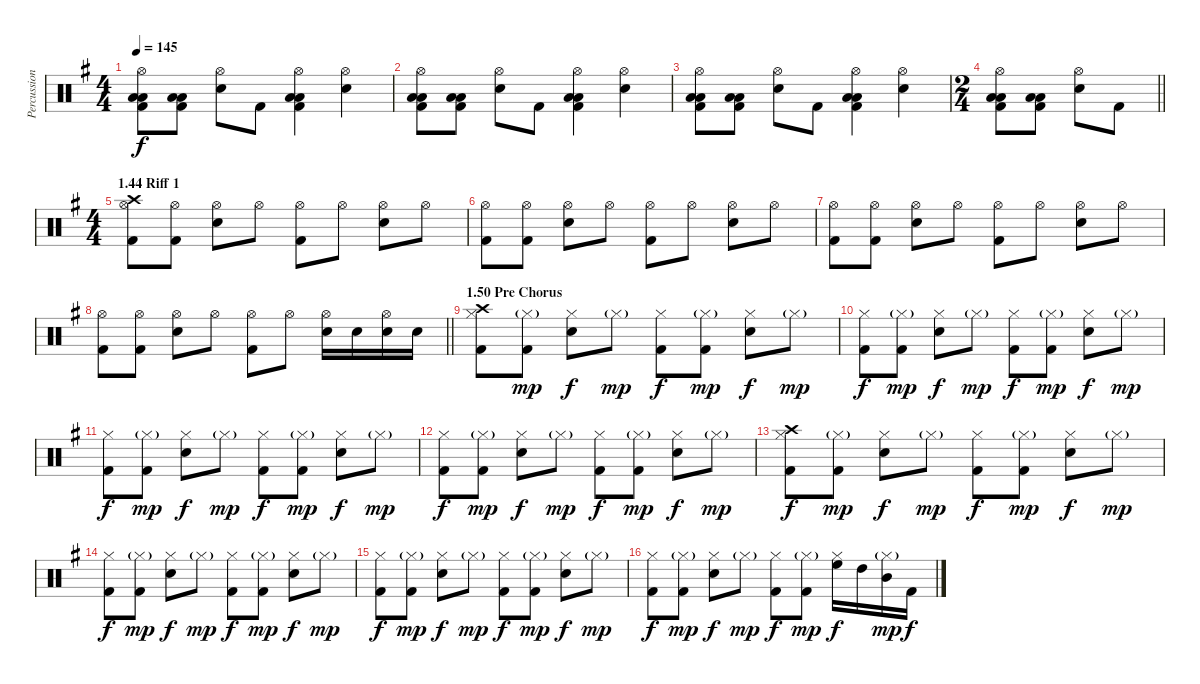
\track ("Percussion" "Percussion") {instrument percussion}
\staff {score}
\articulation defaults
\ts (4 4)
\tempo 145
\clef neutral
\ks eminor
("Hi-Hat (open)" "Low Tom (hit)" "Low Floor Tom (hit)" "Kick (hit) 2").8{dy f} ("Low Tom (hit)" "Low Floor Tom (hit)" "Kick (hit) 2").8 ("Hi-Hat (open)" "Electric Snare (hit)").8 "Kick (hit) 2".8 ("Hi-Hat (open)" "Low Tom (hit)" "Low Floor Tom (hit)" "Kick (hit) 2").4 ("Hi-Hat (open)" "Electric Snare (hit)").4 |
("Hi-Hat (open)" "Low Tom (hit)" "Low Floor Tom (hit)" "Kick (hit) 2").8 ("Low Tom (hit)" "Low Floor Tom (hit)" "Kick (hit) 2").8 ("Hi-Hat (open)" "Electric Snare (hit)").8 "Kick (hit) 2".8 ("Hi-Hat (open)" "Low Tom (hit)" "Low Floor Tom (hit)" "Kick (hit) 2").4 ("Hi-Hat (open)" "Electric Snare (hit)").4 |
("Hi-Hat (open)" "Low Tom (hit)" "Low Floor Tom (hit)" "Kick (hit) 2").8 ("Low Tom (hit)" "Low Floor Tom (hit)" "Kick (hit) 2").8 ("Hi-Hat (open)" "Electric Snare (hit)").8 "Kick (hit) 2".8 ("Hi-Hat (open)" "Low Tom (hit)" "Low Floor Tom (hit)" "Kick (hit) 2").4 ("Hi-Hat (open)" "Electric Snare (hit)").4 |
\ts (2 4)
\barLineRight lightlight
("Hi-Hat (open)" "Low Tom (hit)" "Low Floor Tom (hit)" "Kick (hit) 2").8 ("Low Tom (hit)" "Low Floor Tom (hit)" "Kick (hit) 2").8 ("Hi-Hat (open)" "Electric Snare (hit)").8 "Kick (hit) 2".8 |
\ts (4 4)
\section ("" "1.44 Riff 1")
("Crash high (hit)" "Hi-Hat (open)" "Kick (hit) 2").8 ("Hi-Hat (open)" "Kick (hit) 2").8 ("Hi-Hat (open)" "Electric Snare (hit)").8 "Hi-Hat (open)".8 ("Hi-Hat (open)" "Kick (hit) 2").8 "Hi-Hat (open)".8 ("Hi-Hat (open)" "Electric Snare (hit)").8 "Hi-Hat (open)".8 |
("Hi-Hat (open)" "Kick (hit) 2").8 ("Hi-Hat (open)" "Kick (hit) 2").8 ("Hi-Hat (open)" "Electric Snare (hit)").8 "Hi-Hat (open)".8 ("Hi-Hat (open)" "Kick (hit) 2").8 "Hi-Hat (open)".8 ("Hi-Hat (open)" "Electric Snare (hit)").8 "Hi-Hat (open)".8 |
("Hi-Hat (open)" "Kick (hit) 2").8 ("Hi-Hat (open)" "Kick (hit) 2").8 ("Hi-Hat (open)" "Electric Snare (hit)").8 "Hi-Hat (open)".8 ("Hi-Hat (open)" "Kick (hit) 2").8 "Hi-Hat (open)".8 ("Hi-Hat (open)" "Electric Snare (hit)").8 "Hi-Hat (open)".8 |
\barLineRight lightlight
("Hi-Hat (open)" "Kick (hit) 2").8 ("Hi-Hat (open)" "Kick (hit) 2").8 ("Hi-Hat (open)" "Electric Snare (hit)").8 "Hi-Hat (open)".8 ("Hi-Hat (open)" "Kick (hit) 2").8 "Hi-Hat (open)".8 ("Hi-Hat (open)" "Electric Snare (hit)").16 "Electric Snare (hit)".16 ("Hi-Hat (open)" "Electric Snare (hit)").16 "Electric Snare (hit)".16 |
\section ("" "1.50 Pre Chorus")
("Crash high (hit)" "Hi-Hat (closed)" "Kick (hit) 2").8 ("Hi-Hat (closed)"{g} "Kick (hit) 2").8{dy mp} ("Hi-Hat (closed)" "Electric Snare (hit)").8{dy f} "Hi-Hat (closed)"{g}.8{dy mp} ("Hi-Hat (closed)" "Kick (hit) 2").8{dy f} ("Hi-Hat (closed)"{g} "Kick (hit) 2").8{dy mp} ("Hi-Hat (closed)" "Electric Snare (hit)").8{dy f} "Hi-Hat (closed)"{g}.8{dy mp} |
("Hi-Hat (closed)" "Kick (hit) 2").8{dy f} ("Hi-Hat (closed)"{g} "Kick (hit) 2").8{dy mp} ("Hi-Hat (closed)" "Electric Snare (hit)").8{dy f} "Hi-Hat (closed)"{g}.8{dy mp} ("Hi-Hat (closed)" "Kick (hit) 2").8{dy f} ("Hi-Hat (closed)"{g} "Kick (hit) 2").8{dy mp} ("Hi-Hat (closed)" "Electric Snare (hit)").8{dy f} "Hi-Hat (closed)"{g}.8{dy mp} |
("Hi-Hat (closed)" "Kick (hit) 2").8{dy f} ("Hi-Hat (closed)"{g} "Kick (hit) 2").8{dy mp} ("Hi-Hat (closed)" "Electric Snare (hit)").8{dy f} "Hi-Hat (closed)"{g}.8{dy mp} ("Hi-Hat (closed)" "Kick (hit) 2").8{dy f} ("Hi-Hat (closed)"{g} "Kick (hit) 2").8{dy mp} ("Hi-Hat (closed)" "Electric Snare (hit)").8{dy f} "Hi-Hat (closed)"{g}.8{dy mp} |
("Hi-Hat (closed)" "Kick (hit) 2").8{dy f} ("Hi-Hat (closed)"{g} "Kick (hit) 2").8{dy mp} ("Hi-Hat (closed)" "Electric Snare (hit)").8{dy f} "Hi-Hat (closed)"{g}.8{dy mp} ("Hi-Hat (closed)" "Kick (hit) 2").8{dy f} ("Hi-Hat (closed)"{g} "Kick (hit) 2").8{dy mp} ("Hi-Hat (closed)" "Electric Snare (hit)").8{dy f} "Hi-Hat (closed)"{g}.8{dy mp} |
("Crash high (hit)" "Hi-Hat (closed)" "Kick (hit) 2").8{dy f} ("Hi-Hat (closed)"{g} "Kick (hit) 2").8{dy mp} ("Hi-Hat (closed)" "Electric Snare (hit)").8{dy f} "Hi-Hat (closed)"{g}.8{dy mp} ("Hi-Hat (closed)" "Kick (hit) 2").8{dy f} ("Hi-Hat (closed)"{g} "Kick (hit) 2").8{dy mp} ("Hi-Hat (closed)" "Electric Snare (hit)").8{dy f} "Hi-Hat (closed)"{g}.8{dy mp} |
("Hi-Hat (closed)" "Kick (hit) 2").8{dy f} ("Hi-Hat (closed)"{g} "Kick (hit) 2").8{dy mp} ("Hi-Hat (closed)" "Electric Snare (hit)").8{dy f} "Hi-Hat (closed)"{g}.8{dy mp} ("Hi-Hat (closed)" "Kick (hit) 2").8{dy f} ("Hi-Hat (closed)"{g} "Kick (hit) 2").8{dy mp} ("Hi-Hat (closed)" "Electric Snare (hit)").8{dy f} "Hi-Hat (closed)"{g}.8{dy mp} |
("Hi-Hat (closed)" "Kick (hit) 2").8{dy f} ("Hi-Hat (closed)"{g} "Kick (hit) 2").8{dy mp} ("Hi-Hat (closed)" "Electric Snare (hit)").8{dy f} "Hi-Hat (closed)"{g}.8{dy mp} ("Hi-Hat (closed)" "Kick (hit) 2").8{dy f} ("Hi-Hat (closed)"{g} "Kick (hit) 2").8{dy mp} ("Hi-Hat (closed)" "Electric Snare (hit)").8{dy f} "Hi-Hat (closed)"{g}.8{dy mp} |
("Hi-Hat (closed)" "Kick (hit) 2").8{dy f} ("Hi-Hat (closed)"{g} "Kick (hit) 2").8{dy mp} ("Hi-Hat (closed)" "Electric Snare (hit)").8{dy f} "Hi-Hat (closed)"{g}.8{dy mp} ("Hi-Hat (closed)" "Kick (hit) 2").8{dy f} ("Hi-Hat (closed)"{g} "Kick (hit) 2").8{dy mp} ("Hi-Hat (closed)" "High Floor Tom (hit)").16{dy f} "High Tom (hit)".16 ("Hi-Hat (closed)"{g} "Mid Tom (hit)").16{dy mp} "Kick (hit) 2".16{dy f}
